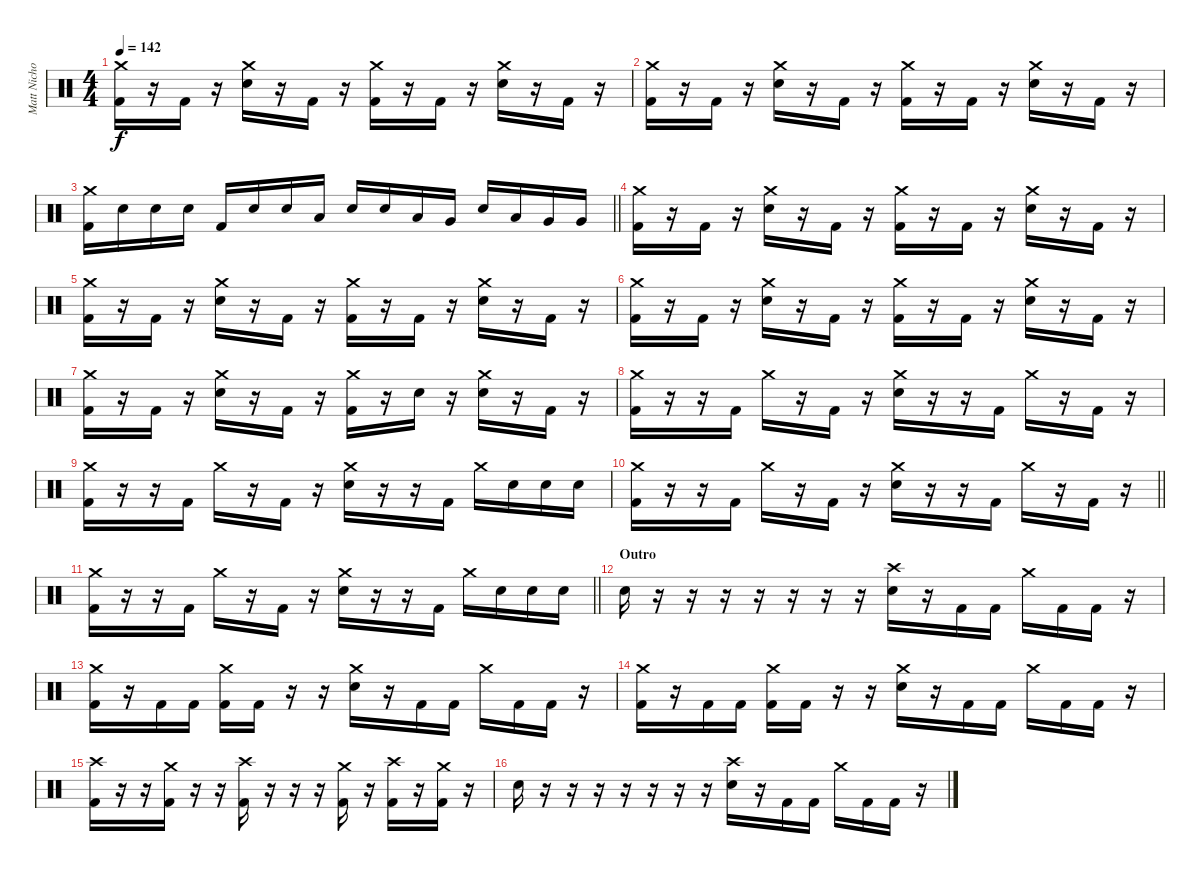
\track ("Matt Nicholls" "Matt Nicho") {instrument percussion}
\staff {score}
\articulation defaults
\ts (4 4)
\tempo 142
\clef neutral
\ks c
("Crash medium (hit)" "Kick (hit) 2").16{dy f} r.16 "Kick (hit) 2".16 r.16 ("Crash medium (hit)" "Electric Snare (hit)").16 r.16 "Kick (hit) 2".16 r.16 ("Crash medium (hit)" "Kick (hit) 2").16 r.16 "Kick (hit) 2".16 r.16 ("Crash medium (hit)" "Electric Snare (hit)").16 r.16 "Kick (hit) 2".16 r.16 |
("Crash medium (hit)" "Kick (hit) 2").16 r.16 "Kick (hit) 2".16 r.16 ("Crash medium (hit)" "Electric Snare (hit)").16 r.16 "Kick (hit) 2".16 r.16 ("Crash medium (hit)" "Kick (hit) 2").16 r.16 "Kick (hit) 2".16 r.16 ("Crash medium (hit)" "Electric Snare (hit)").16 r.16 "Kick (hit) 2".16 r.16 |
\barLineRight lightlight
("Crash medium (hit)" "Kick (hit) 2").16 "Electric Snare (hit)".16 "Electric Snare (hit)".16 "Electric Snare (hit)".16 "Kick (hit) 2".16 "Electric Snare (hit)".16 "Electric Snare (hit)".16 "Low Tom (hit)".16 "Electric Snare (hit)".16 "Electric Snare (hit)".16 "Low Tom (hit)".16 "Very Low Tom (hit)".16 "Electric Snare (hit)".16 "Low Tom (hit)".16 "Very Low Tom (hit)".16 "Very Low Tom (hit)".16 |
("Crash medium (hit)" "Kick (hit) 2").16 r.16 "Kick (hit) 2".16 r.16 ("Crash medium (hit)" "Electric Snare (hit)").16 r.16 "Kick (hit) 2".16 r.16 ("Crash medium (hit)" "Kick (hit) 2").16 r.16 "Kick (hit) 2".16 r.16 ("Crash medium (hit)" "Electric Snare (hit)").16 r.16 "Kick (hit) 2".16 r.16 |
("Crash medium (hit)" "Kick (hit) 2").16 r.16 "Kick (hit) 2".16 r.16 ("Crash medium (hit)" "Electric Snare (hit)").16 r.16 "Kick (hit) 2".16 r.16 ("Crash medium (hit)" "Kick (hit) 2").16 r.16 "Kick (hit) 2".16 r.16 ("Crash medium (hit)" "Electric Snare (hit)").16 r.16 "Kick (hit) 2".16 r.16 |
("Crash medium (hit)" "Kick (hit) 2").16 r.16 "Kick (hit) 2".16 r.16 ("Crash medium (hit)" "Electric Snare (hit)").16 r.16 "Kick (hit) 2".16 r.16 ("Crash medium (hit)" "Kick (hit) 2").16 r.16 "Kick (hit) 2".16 r.16 ("Crash medium (hit)" "Electric Snare (hit)").16 r.16 "Kick (hit) 2".16 r.16 |
("Crash medium (hit)" "Kick (hit) 2").16 r.16 "Kick (hit) 2".16 r.16 ("Crash medium (hit)" "Electric Snare (hit)").16 r.16 "Kick (hit) 2".16 r.16 ("Crash medium (hit)" "Kick (hit) 2").16 r.16 "Electric Snare (hit)".16 r.16 ("Crash medium (hit)" "Electric Snare (hit)").16 r.16 "Kick (hit) 2".16 r.16 |
("Crash medium (hit)" "Kick (hit) 2").16 r.16 r.16 "Kick (hit) 2".16 "Crash medium (hit)".16 r.16 "Kick (hit) 2".16 r.16 ("Crash medium (hit)" "Electric Snare (hit)").16 r.16 r.16 "Kick (hit) 2".16 "Crash medium (hit)".16 r.16 "Kick (hit) 2".16 r.16 |
("Crash medium (hit)" "Kick (hit) 2").16 r.16 r.16 "Kick (hit) 2".16 "Crash medium (hit)".16 r.16 "Kick (hit) 2".16 r.16 ("Crash medium (hit)" "Electric Snare (hit)").16 r.16 r.16 "Kick (hit) 2".16 "Crash medium (hit)".16 "Electric Snare (hit)".16 "Electric Snare (hit)".16 "Electric Snare (hit)".16 |
\barLineRight lightlight
("Crash medium (hit)" "Kick (hit) 2").16 r.16 r.16 "Kick (hit) 2".16 "Crash medium (hit)".16 r.16 "Kick (hit) 2".16 r.16 ("Crash medium (hit)" "Electric Snare (hit)").16 r.16 r.16 "Kick (hit) 2".16 "Crash medium (hit)".16 r.16 "Kick (hit) 2".16 r.16 |
\barLineRight lightlight
("Crash medium (hit)" "Kick (hit) 2").16 r.16 r.16 "Kick (hit) 2".16 "Crash medium (hit)".16 r.16 "Kick (hit) 2".16 r.16 ("Crash medium (hit)" "Electric Snare (hit)").16 r.16 r.16 "Kick (hit) 2".16 "Crash medium (hit)".16 "Electric Snare (hit)".16 "Electric Snare (hit)".16 "Electric Snare (hit)".16 |
\section ("" "Outro")
"Electric Snare (hit)".16 r.16 r.16 r.16 r.16 r.16 r.16 r.16 ("Crash high (hit)" "Electric Snare (hit)").16 r.16 "Kick (hit) 2".16 "Kick (hit) 2".16 "Crash medium (hit)".16 "Kick (hit) 2".16 "Kick (hit) 2".16 r.16 |
("Crash medium (hit)" "Kick (hit) 2").16 r.16 "Kick (hit) 2".16 "Kick (hit) 2".16 ("Crash medium (hit)" "Kick (hit) 2").16 "Kick (hit) 2".16 r.16 r.16 ("Crash medium (hit)" "Electric Snare (hit)").16 r.16 "Kick (hit) 2".16 "Kick (hit) 2".16 "Crash medium (hit)".16 "Kick (hit) 2".16 "Kick (hit) 2".16 r.16 |
("Crash medium (hit)" "Kick (hit) 2").16 r.16 "Kick (hit) 2".16 "Kick (hit) 2".16 ("Crash medium (hit)" "Kick (hit) 2").16 "Kick (hit) 2".16 r.16 r.16 ("Crash medium (hit)" "Electric Snare (hit)").16 r.16 "Kick (hit) 2".16 "Kick (hit) 2".16 "Crash medium (hit)".16 "Kick (hit) 2".16 "Kick (hit) 2".16 r.16 |
("Crash high (hit)" "Kick (hit) 2").16 r.16 r.16 ("Crash medium (hit)" "Kick (hit) 2").16 r.16 r.16 ("Crash high (hit)" "Kick (hit) 2").16 r.16 r.16 r.16 ("Crash medium (hit)" "Kick (hit) 2").16 r.16 ("Crash high (hit)" "Kick (hit) 2").16 r.16 ("Crash medium (hit)" "Kick (hit) 2").16 r.16 |
"Electric Snare (hit)".16 r.16 r.16 r.16 r.16 r.16 r.16 r.16 ("Crash high (hit)" "Electric Snare (hit)").16 r.16 "Kick (hit) 2".16 "Kick (hit) 2".16 "Crash medium (hit)".16 "Kick (hit) 2".16 "Kick (hit) 2".16 r.16
